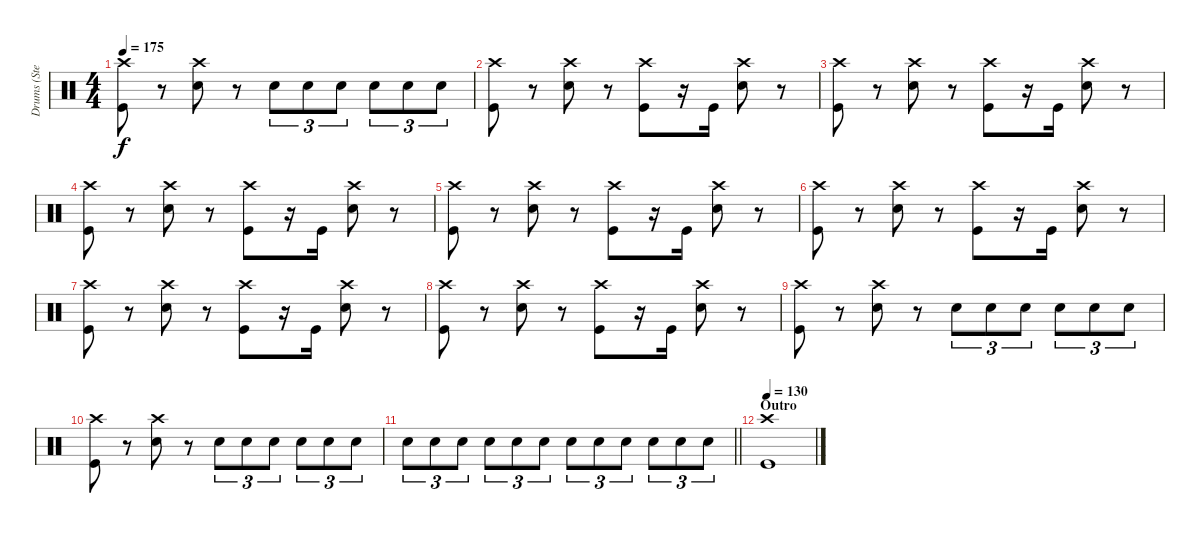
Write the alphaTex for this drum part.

\track ("Drums (Stevo)" "Drums (Ste") {instrument percussion}
\staff {score}
\articulation defaults
\ts (4 4)
\tempo 175
\clef neutral
\ks c
("Crash high (hit)" "Kick (hit)").8{dy f} r.8 ("Crash high (hit)" "Snare (hit) 2").8 r.8 "Snare (hit) 2".8{tu (3 2)} "Snare (hit) 2".8{tu (3 2)} "Snare (hit) 2".8{tu (3 2)} "Snare (hit) 2".8{tu (3 2)} "Snare (hit) 2".8{tu (3 2)} "Snare (hit) 2".8{tu (3 2)} |
("Crash high (hit)" "Kick (hit)").8 r.8 ("Crash high (hit)" "Snare (hit) 2").8 r.8 ("Crash high (hit)" "Kick (hit)").8 r.16 "Kick (hit)".16 ("Crash high (hit)" "Snare (hit) 2").8 r.8 |
("Crash high (hit)" "Kick (hit)").8 r.8 ("Crash high (hit)" "Snare (hit) 2").8 r.8 ("Crash high (hit)" "Kick (hit)").8 r.16 "Kick (hit)".16 ("Crash high (hit)" "Snare (hit) 2").8 r.8 |
("Crash high (hit)" "Kick (hit)").8 r.8 ("Crash high (hit)" "Snare (hit) 2").8 r.8 ("Crash high (hit)" "Kick (hit)").8 r.16 "Kick (hit)".16 ("Crash high (hit)" "Snare (hit) 2").8 r.8 |
("Crash high (hit)" "Kick (hit)").8 r.8 ("Crash high (hit)" "Snare (hit) 2").8 r.8 ("Crash high (hit)" "Kick (hit)").8 r.16 "Kick (hit)".16 ("Crash high (hit)" "Snare (hit) 2").8 r.8 |
("Crash high (hit)" "Kick (hit)").8 r.8 ("Crash high (hit)" "Snare (hit) 2").8 r.8 ("Crash high (hit)" "Kick (hit)").8 r.16 "Kick (hit)".16 ("Crash high (hit)" "Snare (hit) 2").8 r.8 |
("Crash high (hit)" "Kick (hit)").8 r.8 ("Crash high (hit)" "Snare (hit) 2").8 r.8 ("Crash high (hit)" "Kick (hit)").8 r.16 "Kick (hit)".16 ("Crash high (hit)" "Snare (hit) 2").8 r.8 |
("Crash high (hit)" "Kick (hit)").8 r.8 ("Crash high (hit)" "Snare (hit) 2").8 r.8 ("Crash high (hit)" "Kick (hit)").8 r.16 "Kick (hit)".16 ("Crash high (hit)" "Snare (hit) 2").8 r.8 |
("Crash high (hit)" "Kick (hit)").8 r.8 ("Crash high (hit)" "Snare (hit) 2").8 r.8 "Snare (hit) 2".8{tu (3 2)} "Snare (hit) 2".8{tu (3 2)} "Snare (hit) 2".8{tu (3 2)} "Snare (hit) 2".8{tu (3 2)} "Snare (hit) 2".8{tu (3 2)} "Snare (hit) 2".8{tu (3 2)} |
("Crash high (hit)" "Kick (hit)").8 r.8 ("Crash high (hit)" "Snare (hit) 2").8 r.8 "Snare (hit) 2".8{tu (3 2)} "Snare (hit) 2".8{tu (3 2)} "Snare (hit) 2".8{tu (3 2)} "Snare (hit) 2".8{tu (3 2)} "Snare (hit) 2".8{tu (3 2)} "Snare (hit) 2".8{tu (3 2)} |
\barLineRight lightlight "Snare (hit) 2".8{tu (3 2)} "Snare (hit) 2".8{tu (3 2)} "Snare (hit) 2".8{tu (3 2)} "Snare (hit) 2".8{tu (3 2)} "Snare (hit) 2".8{tu (3 2)} "Snare (hit) 2".8{tu (3 2)} "Snare (hit) 2".8{tu (3 2)} "Snare (hit) 2".8{tu (3 2)} "Snare (hit) 2".8{tu (3 2)} "Snare (hit) 2".8{tu (3 2)} "Snare (hit) 2".8{tu (3 2)} "Snare (hit) 2".8{tu (3 2)}
|
\section ("" "Outro")
\tempo 140
\tempo 130
("Crash high (hit)" "Kick (hit)").1
